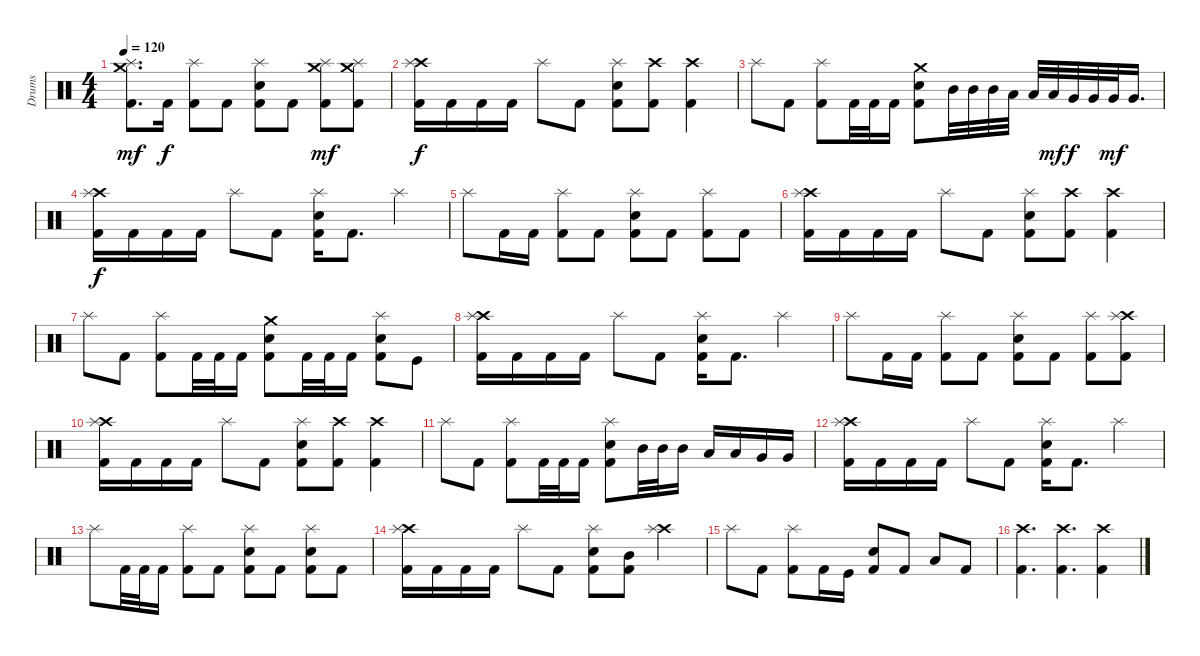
\track ("Drums" "Drums") {instrument percussion}
\staff {score}
\articulation defaults
\ts (4 4)
\tempo 120
\clef neutral
\ks c
("Crash medium (hit)" "Splash (hit)" "Kick (hit) 2").8{d dy mf} "Kick (hit) 2".16{dy f} ("Splash (hit)" "Kick (hit) 2").8 "Kick (hit) 2".8 ("Splash (hit)" "Electric Snare (hit)" "Kick (hit) 2").8 "Kick (hit) 2".8 ("Crash medium (hit)" "Splash (hit)" "Kick (hit) 2").8{dy mf} ("Crash medium (hit)" "Splash (hit)" "Kick (hit) 2").8 |
("Crash high (hit)" "Splash (hit)" "Kick (hit) 2").16{dy f} "Kick (hit) 2".16 "Kick (hit) 2".16 "Kick (hit) 2".16 "Splash (hit)".8 "Kick (hit) 2".8 ("Splash (hit)" "Electric Snare (hit)" "Kick (hit) 2").8 ("Crash high (hit)" "Kick (hit) 2").8 ("Crash high (hit)" "Kick (hit) 2").4 |
"Splash (hit)".8 "Kick (hit) 2".8 ("Splash (hit)" "Kick (hit) 2").8 "Kick (hit) 2".32 "Kick (hit) 2".32 "Kick (hit) 2".16 ("Crash medium (hit)" "Electric Snare (hit)" "Kick (hit) 2").8 "Mid Tom (hit)".32 "Mid Tom (hit)".32 "Mid Tom (hit)".32 "Low Tom (hit)".32 "Low Tom (hit)".32 "Low Tom (hit)".32{dy mf} "Very Low Tom (hit)".32{dy f} "Very Low Tom (hit)".32 "Very Low Tom (hit)".32{dy mf} "Very Low Tom (hit)".16{d} |
("Crash high (hit)" "Splash (hit)" "Kick (hit) 2").16{dy f} "Kick (hit) 2".16 "Kick (hit) 2".16 "Kick (hit) 2".16 "Splash (hit)".8 "Kick (hit) 2".8 ("Splash (hit)" "Electric Snare (hit)" "Kick (hit) 2").16 "Kick (hit) 2".8{d} "Splash (hit)".4 |
"Splash (hit)".8 "Kick (hit) 2".16 "Kick (hit) 2".16 ("Splash (hit)" "Kick (hit) 2").8 "Kick (hit) 2".8 ("Splash (hit)" "Electric Snare (hit)" "Kick (hit) 2").8 "Kick (hit) 2".8 ("Splash (hit)" "Kick (hit) 2").8 "Kick (hit) 2".8 |
("Crash high (hit)" "Splash (hit)" "Kick (hit) 2").16 "Kick (hit) 2".16 "Kick (hit) 2".16 "Kick (hit) 2".16 "Splash (hit)".8 "Kick (hit) 2".8 ("Splash (hit)" "Electric Snare (hit)" "Kick (hit) 2").8 ("Crash high (hit)" "Kick (hit) 2").8 ("Crash high (hit)" "Kick (hit) 2").4 |
"Splash (hit)".8 "Kick (hit) 2".8 ("Splash (hit)" "Kick (hit) 2").8 "Kick (hit) 2".32 "Kick (hit) 2".32 "Kick (hit) 2".16 ("Crash medium (hit)" "Electric Snare (hit)" "Kick (hit) 2").8 "Kick (hit) 2".32 "Kick (hit) 2".32 "Kick (hit) 2".16 ("Splash (hit)" "Electric Snare (hit)" "Kick (hit) 2").8 "Kick (hit)".8 |
("Crash high (hit)" "Splash (hit)" "Kick (hit) 2").16 "Kick (hit) 2".16 "Kick (hit) 2".16 "Kick (hit) 2".16 "Splash (hit)".8 "Kick (hit) 2".8 ("Splash (hit)" "Electric Snare (hit)" "Kick (hit) 2").16 "Kick (hit) 2".8{d} "Splash (hit)".4 |
"Splash (hit)".8 "Kick (hit) 2".16 "Kick (hit) 2".16 ("Splash (hit)" "Kick (hit) 2").8 "Kick (hit) 2".8 ("Splash (hit)" "Electric Snare (hit)" "Kick (hit) 2").8 "Kick (hit) 2".8 ("Splash (hit)" "Kick (hit) 2").8 ("Crash high (hit)" "Splash (hit)" "Kick (hit) 2").8 |
("Crash high (hit)" "Splash (hit)" "Kick (hit) 2").16 "Kick (hit) 2".16 "Kick (hit) 2".16 "Kick (hit) 2".16 "Splash (hit)".8 "Kick (hit) 2".8 ("Splash (hit)" "Electric Snare (hit)" "Kick (hit) 2").8 ("Crash high (hit)" "Kick (hit) 2").8 ("Crash high (hit)" "Kick (hit) 2").4 |
"Splash (hit)".8 "Kick (hit) 2".8 ("Splash (hit)" "Kick (hit) 2").8 "Kick (hit) 2".32 "Kick (hit) 2".32 "Kick (hit) 2".16 ("Splash (hit)" "Electric Snare (hit)" "Kick (hit) 2").8 "Mid Tom (hit)".32 "Mid Tom (hit)".32 "Mid Tom (hit)".16 "Low Tom (hit)".16 "Low Tom (hit)".16 "Very Low Tom (hit)".16 "Very Low Tom (hit)".16 |
("Crash high (hit)" "Splash (hit)" "Kick (hit) 2").16 "Kick (hit) 2".16 "Kick (hit) 2".16 "Kick (hit) 2".16 "Splash (hit)".8 "Kick (hit) 2".8 ("Splash (hit)" "Electric Snare (hit)" "Kick (hit) 2").16 "Kick (hit) 2".8{d} "Splash (hit)".4 |
"Splash (hit)".8 "Kick (hit) 2".32 "Kick (hit) 2".32 "Kick (hit) 2".16 ("Splash (hit)" "Kick (hit) 2").8 "Kick (hit) 2".8 ("Splash (hit)" "Electric Snare (hit)" "Kick (hit) 2").8 "Kick (hit) 2".8 ("Splash (hit)" "Electric Snare (hit)" "Kick (hit) 2").8 "Kick (hit) 2".8 |
("Crash high (hit)" "Splash (hit)" "Kick (hit) 2").16 "Kick (hit) 2".16 "Kick (hit) 2".16 "Kick (hit) 2".16 "Splash (hit)".8 "Kick (hit) 2".8 ("Splash (hit)" "Electric Snare (hit)" "Kick (hit) 2").8 ("Mid Tom (hit)" "Kick (hit) 2").8 ("Crash high (hit)" "Splash (hit)").4 |
"Splash (hit)".8 "Kick (hit) 2".8 ("Splash (hit)" "Kick (hit) 2").8 "Kick (hit) 2".16 "Kick (hit)".16 ("Electric Snare (hit)" "Kick (hit) 2").8 "Kick (hit) 2".8 "Low Tom (hit)".8 "Kick (hit) 2".8 |
("Crash high (hit)" "Kick (hit) 2").4{d} ("Crash high (hit)" "Kick (hit) 2").4{d} ("Crash high (hit)" "Kick (hit) 2").4
